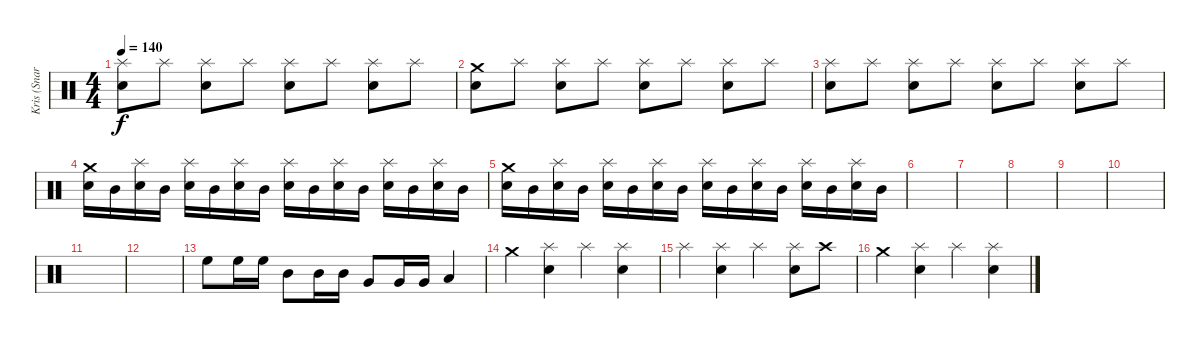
\track ("Kris (Snares & Toms)" "Kris (Snar") {instrument percussion}
\staff {score}
\articulation defaults
\ts (4 4)
\tempo 140
\clef neutral
\ks c
("Splash (hit)" "Electric Snare (hit)").8{dy f} "Splash (hit)".8 ("Splash (hit)" "Electric Snare (hit)").8 "Splash (hit)".8 ("Splash (hit)" "Electric Snare (hit)").8 "Splash (hit)".8 ("Splash (hit)" "Electric Snare (hit)").8 "Splash (hit)".8 |
("Crash medium (hit)" "Electric Snare (hit)").8 "Splash (hit)".8 ("Splash (hit)" "Electric Snare (hit)").8 "Splash (hit)".8 ("Splash (hit)" "Electric Snare (hit)").8 "Splash (hit)".8 ("Splash (hit)" "Electric Snare (hit)").8 "Splash (hit)".8 |
("Splash (hit)" "Electric Snare (hit)").8 "Splash (hit)".8 ("Splash (hit)" "Electric Snare (hit)").8 "Splash (hit)".8 ("Splash (hit)" "Electric Snare (hit)").8 "Splash (hit)".8 ("Splash (hit)" "Electric Snare (hit)").8 "Splash (hit)".8 |
("Crash medium (hit)" "Electric Snare (hit)").16 "Mid Tom (hit)".16 ("Splash (hit)" "Electric Snare (hit)").16 "Mid Tom (hit)".16 ("Splash (hit)" "Electric Snare (hit)").16 "Mid Tom (hit)".16 ("Splash (hit)" "Electric Snare (hit)").16 "Mid Tom (hit)".16 ("Splash (hit)" "Electric Snare (hit)").16 "Mid Tom (hit)".16 ("Splash (hit)" "Electric Snare (hit)").16 "Mid Tom (hit)".16 ("Splash (hit)" "Electric Snare (hit)").16 "Mid Tom (hit)".16 ("Splash (hit)" "Electric Snare (hit)").16 "Mid Tom (hit)".16 |
("Crash medium (hit)" "Electric Snare (hit)").16 "Mid Tom (hit)".16 ("Splash (hit)" "Electric Snare (hit)").16 "Mid Tom (hit)".16 ("Splash (hit)" "Electric Snare (hit)").16 "Mid Tom (hit)".16 ("Splash (hit)" "Electric Snare (hit)").16 "Mid Tom (hit)".16 ("Splash (hit)" "Electric Snare (hit)").16 "Mid Tom (hit)".16 ("Splash (hit)" "Electric Snare (hit)").16 "Mid Tom (hit)".16 ("Splash (hit)" "Electric Snare (hit)").16 "Mid Tom (hit)".16 ("Splash (hit)" "Electric Snare (hit)").16 "Mid Tom (hit)".16 |
|
|
|
|
|
|
|
"High Floor Tom (hit)".8 "High Floor Tom (hit)".16 "High Floor Tom (hit)".16 "Mid Tom (hit)".8 "Mid Tom (hit)".16 "Mid Tom (hit)".16 "Very Low Tom (hit)".8 "Very Low Tom (hit)".16 "Very Low Tom (hit)".16 "Low Floor Tom (hit)".4 |
"Crash medium (hit)".4 ("Splash (hit)" "Electric Snare (hit)").4 "Splash (hit)".4 ("Splash (hit)" "Electric Snare (hit)").4 |
"Splash (hit)".4 ("Splash (hit)" "Electric Snare (hit)").4 "Splash (hit)".4 ("Splash (hit)" "Electric Snare (hit)").8 "Crash high (hit)".8 |
"Crash medium (hit)".4 ("Splash (hit)" "Electric Snare (hit)").4 "Splash (hit)".4 ("Splash (hit)" "Electric Snare (hit)").4
